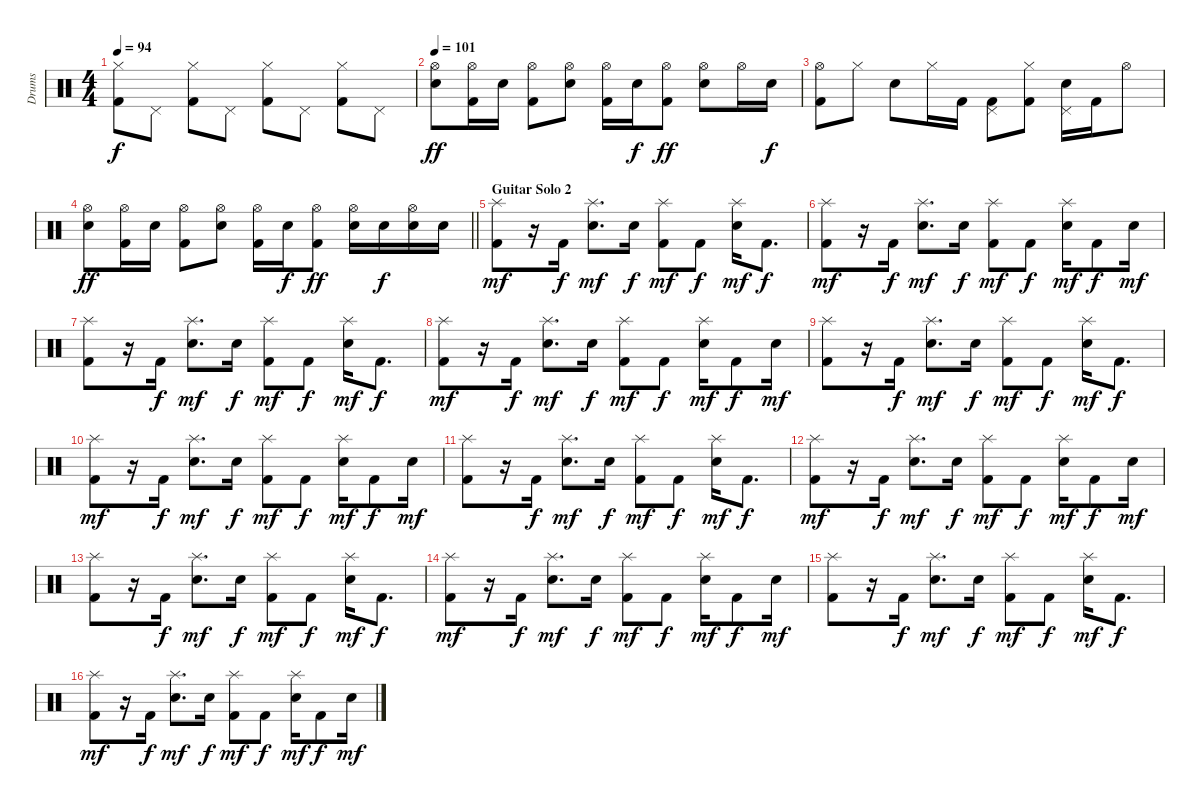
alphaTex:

\track ("Drums" "Drums") {instrument percussion}
\staff {score}
\articulation defaults
\ts (4 4)
\tempo 94
\clef neutral
\ks c
("Hi-Hat (closed)" "Kick (hit) 2").8{dy f} "Pedal Hi-Hat (hit)".8 ("Hi-Hat (closed)" "Kick (hit) 2").8 "Pedal Hi-Hat (hit)".8 ("Hi-Hat (closed)" "Kick (hit) 2").8 "Pedal Hi-Hat (hit)".8 ("Hi-Hat (closed)" "Kick (hit) 2").8 "Pedal Hi-Hat (hit)".8 |
\tempo 101
("Hi-Hat (open)" "Electric Snare (hit)").8{dy ff} ("Hi-Hat (open)" "Kick (hit) 2").16 "Electric Snare (hit)".16 ("Hi-Hat (open)" "Kick (hit) 2").8 ("Hi-Hat (open)" "Electric Snare (hit)").8 ("Hi-Hat (open)" "Kick (hit) 2").16 "Electric Snare (hit)".16{dy f} ("Hi-Hat (open)" "Kick (hit) 2").8{dy ff} ("Hi-Hat (open)" "Electric Snare (hit)").8 "Hi-Hat (open)".16 "Electric Snare (hit)".16{dy f} |
("Hi-Hat (open)" "Kick (hit) 2").8 "Hi-Hat (closed)".8 "Electric Snare (hit)".8 "Hi-Hat (closed)".16 "Kick (hit) 2".16 ("Pedal Hi-Hat (hit)" "Kick (hit) 2").8 ("Hi-Hat (closed)" "Kick (hit) 2").8 ("Pedal Hi-Hat (hit)" "Electric Snare (hit)").16 "Kick (hit) 2".16 "Hi-Hat (open)".8 |
\barLineRight lightlight
("Hi-Hat (open)" "Electric Snare (hit)").8{dy ff} ("Hi-Hat (open)" "Kick (hit) 2").16 "Electric Snare (hit)".16 ("Hi-Hat (open)" "Kick (hit) 2").8 ("Hi-Hat (open)" "Electric Snare (hit)").8 ("Hi-Hat (open)" "Kick (hit) 2").16 "Electric Snare (hit)".16{dy f} ("Hi-Hat (open)" "Kick (hit) 2").8{dy ff} ("Hi-Hat (open)" "Electric Snare (hit)").16 "Electric Snare (hit)".16{dy f} ("Hi-Hat (open)" "Electric Snare (hit)").16 "Electric Snare (hit)".16 |
\section ("" "Guitar Solo 2")
("Splash (hit)" "Kick (hit) 2").8{dy mf} r.16 "Kick (hit) 2".16{dy f} ("Splash (hit)" "Electric Snare (hit)").8{d dy mf} "Electric Snare (hit)".16{dy f} ("Splash (hit)" "Kick (hit) 2").8{dy mf} "Kick (hit) 2".8{dy f} ("Splash (hit)" "Electric Snare (hit)").16{dy mf} "Kick (hit) 2".8{d dy f} |
("Splash (hit)" "Kick (hit) 2").8{dy mf} r.16 "Kick (hit) 2".16{dy f} ("Splash (hit)" "Electric Snare (hit)").8{d dy mf} "Electric Snare (hit)".16{dy f} ("Splash (hit)" "Kick (hit) 2").8{dy mf} "Kick (hit) 2".8{dy f} ("Splash (hit)" "Electric Snare (hit)").16{dy mf} "Kick (hit) 2".8{dy f} "Electric Snare (hit)".16{dy mf} |
("Splash (hit)" "Kick (hit) 2").8 r.16 "Kick (hit) 2".16{dy f} ("Splash (hit)" "Electric Snare (hit)").8{d dy mf} "Electric Snare (hit)".16{dy f} ("Splash (hit)" "Kick (hit) 2").8{dy mf} "Kick (hit) 2".8{dy f} ("Splash (hit)" "Electric Snare (hit)").16{dy mf} "Kick (hit) 2".8{d dy f} |
("Splash (hit)" "Kick (hit) 2").8{dy mf} r.16 "Kick (hit) 2".16{dy f} ("Splash (hit)" "Electric Snare (hit)").8{d dy mf} "Electric Snare (hit)".16{dy f} ("Splash (hit)" "Kick (hit) 2").8{dy mf} "Kick (hit) 2".8{dy f} ("Splash (hit)" "Electric Snare (hit)").16{dy mf} "Kick (hit) 2".8{dy f} "Electric Snare (hit)".16{dy mf} |
("Splash (hit)" "Kick (hit) 2").8 r.16 "Kick (hit) 2".16{dy f} ("Splash (hit)" "Electric Snare (hit)").8{d dy mf} "Electric Snare (hit)".16{dy f} ("Splash (hit)" "Kick (hit) 2").8{dy mf} "Kick (hit) 2".8{dy f} ("Splash (hit)" "Electric Snare (hit)").16{dy mf} "Kick (hit) 2".8{d dy f} |
("Splash (hit)" "Kick (hit) 2").8{dy mf} r.16 "Kick (hit) 2".16{dy f} ("Splash (hit)" "Electric Snare (hit)").8{d dy mf} "Electric Snare (hit)".16{dy f} ("Splash (hit)" "Kick (hit) 2").8{dy mf} "Kick (hit) 2".8{dy f} ("Splash (hit)" "Electric Snare (hit)").16{dy mf} "Kick (hit) 2".8{dy f} "Electric Snare (hit)".16{dy mf} |
("Splash (hit)" "Kick (hit) 2").8 r.16 "Kick (hit) 2".16{dy f} ("Splash (hit)" "Electric Snare (hit)").8{d dy mf} "Electric Snare (hit)".16{dy f} ("Splash (hit)" "Kick (hit) 2").8{dy mf} "Kick (hit) 2".8{dy f} ("Splash (hit)" "Electric Snare (hit)").16{dy mf} "Kick (hit) 2".8{d dy f} |
("Splash (hit)" "Kick (hit) 2").8{dy mf} r.16 "Kick (hit) 2".16{dy f} ("Splash (hit)" "Electric Snare (hit)").8{d dy mf} "Electric Snare (hit)".16{dy f} ("Splash (hit)" "Kick (hit) 2").8{dy mf} "Kick (hit) 2".8{dy f} ("Splash (hit)" "Electric Snare (hit)").16{dy mf} "Kick (hit) 2".8{dy f} "Electric Snare (hit)".16{dy mf} |
("Splash (hit)" "Kick (hit) 2").8 r.16 "Kick (hit) 2".16{dy f} ("Splash (hit)" "Electric Snare (hit)").8{d dy mf} "Electric Snare (hit)".16{dy f} ("Splash (hit)" "Kick (hit) 2").8{dy mf} "Kick (hit) 2".8{dy f} ("Splash (hit)" "Electric Snare (hit)").16{dy mf} "Kick (hit) 2".8{d dy f} |
("Splash (hit)" "Kick (hit) 2").8{dy mf} r.16 "Kick (hit) 2".16{dy f} ("Splash (hit)" "Electric Snare (hit)").8{d dy mf} "Electric Snare (hit)".16{dy f} ("Splash (hit)" "Kick (hit) 2").8{dy mf} "Kick (hit) 2".8{dy f} ("Splash (hit)" "Electric Snare (hit)").16{dy mf} "Kick (hit) 2".8{dy f} "Electric Snare (hit)".16{dy mf} |
("Splash (hit)" "Kick (hit) 2").8 r.16 "Kick (hit) 2".16{dy f} ("Splash (hit)" "Electric Snare (hit)").8{d dy mf} "Electric Snare (hit)".16{dy f} ("Splash (hit)" "Kick (hit) 2").8{dy mf} "Kick (hit) 2".8{dy f} ("Splash (hit)" "Electric Snare (hit)").16{dy mf} "Kick (hit) 2".8{d dy f} |
("Splash (hit)" "Kick (hit) 2").8{dy mf} r.16 "Kick (hit) 2".16{dy f} ("Splash (hit)" "Electric Snare (hit)").8{d dy mf} "Electric Snare (hit)".16{dy f} ("Splash (hit)" "Kick (hit) 2").8{dy mf} "Kick (hit) 2".8{dy f} ("Splash (hit)" "Electric Snare (hit)").16{dy mf} "Kick (hit) 2".8{dy f} "Electric Snare (hit)".16{dy mf}
